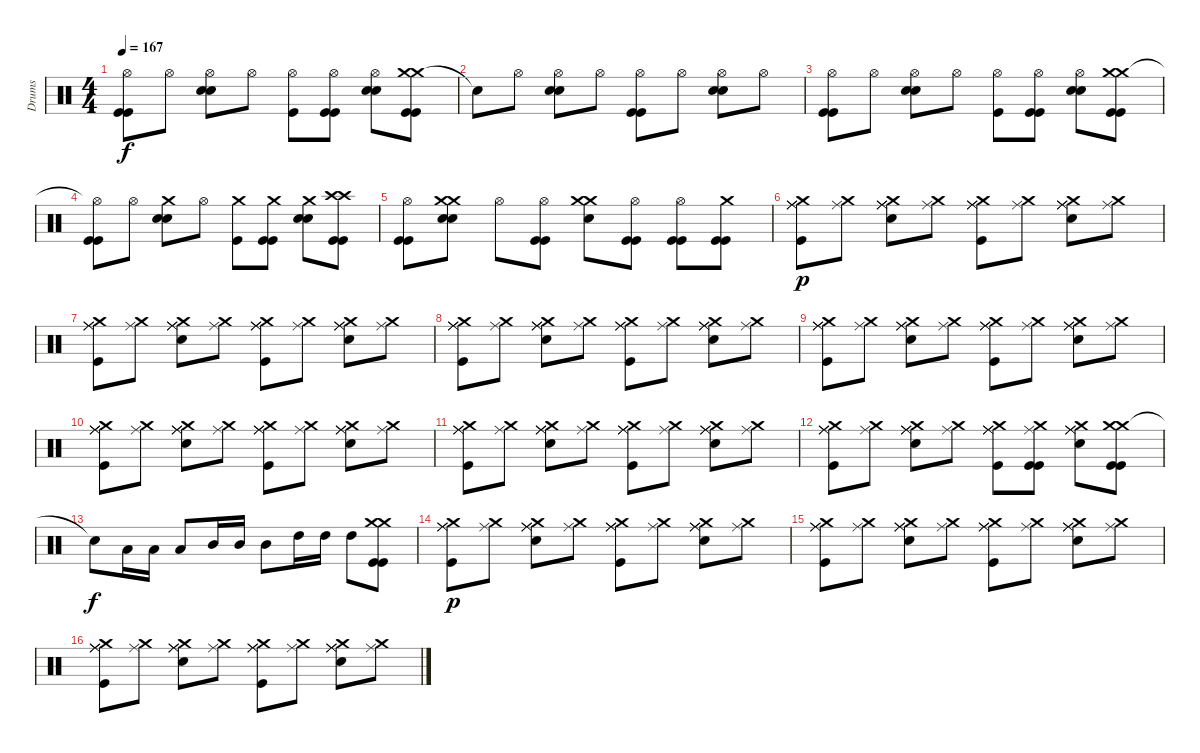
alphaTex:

\track ("Drums" "Drums") {instrument percussion}
\staff {score}
\articulation defaults
\ts (4 4)
\tempo 167
\clef neutral
\ks c
("Hi-Hat (open)" "Kick (hit)" "Kick (hit)").8{dy f} "Hi-Hat (open)".8 ("Hi-Hat (open)" "Snare (hit) 2" "Snare (hit) 2").8 "Hi-Hat (open)".8 ("Hi-Hat (open)" "Kick (hit)").8 ("Hi-Hat (open)" "Kick (hit)" "Kick (hit)").8 ("Hi-Hat (open)" "Snare (hit) 2" "Snare (hit) 2").8 ("Crash medium (hit)" "Crash medium (hit)" "Kick (hit)" "Kick (hit)").8 |
"Snare (hit)"{t}.8 "Hi-Hat (open)".8 ("Hi-Hat (open)" "Snare (hit) 2" "Snare (hit) 2").8 "Hi-Hat (open)".8 ("Hi-Hat (open)" "Kick (hit)" "Kick (hit)").8 "Hi-Hat (open)".8 ("Hi-Hat (open)" "Snare (hit) 2" "Snare (hit) 2").8 "Hi-Hat (open)".8 |
("Hi-Hat (open)" "Kick (hit)" "Kick (hit)").8 "Hi-Hat (open)".8 ("Hi-Hat (open)" "Snare (hit) 2" "Snare (hit) 2").8 "Hi-Hat (open)".8 ("Hi-Hat (open)" "Kick (hit)").8 ("Hi-Hat (open)" "Kick (hit)" "Kick (hit)").8 ("Hi-Hat (open)" "Snare (hit) 2" "Snare (hit) 2").8 ("Crash medium (hit)" "Crash medium (hit)" "Kick (hit)" "Kick (hit)").8 |
("Hi-Hat (open)"{t} "Kick (hit)" "Kick (hit)").8 "Hi-Hat (open)".8 ("Crash medium (hit)" "Snare (hit) 2" "Snare (hit) 2").8 "Hi-Hat (open)".8 ("Crash medium (hit)" "Kick (hit)").8 ("Crash medium (hit)" "Kick (hit)" "Kick (hit)").8 ("Crash medium (hit)" "Snare (hit) 2" "Snare (hit) 2").8 ("Crash high (hit)" "Crash high (hit)" "Kick (hit)" "Kick (hit)").8 |
("Hi-Hat (open)" "Kick (hit)" "Kick (hit)").8 ("Crash medium (hit)" "Snare (hit) 2" "Snare (hit) 2" "Crash medium (hit)").8 "Hi-Hat (open)".8 ("Hi-Hat (open)" "Kick (hit)" "Kick (hit)").8 ("Crash medium (hit)" "Crash medium (hit)" "Snare (hit) 2").8 ("Hi-Hat (open)" "Kick (hit)" "Kick (hit)").8 ("Hi-Hat (open)" "Kick (hit)" "Kick (hit)").8 ("Crash medium (hit)" "Kick (hit)" "Kick (hit)").8 |
("Ride (middle)" "Crash medium (hit)" "Ride (middle)" "Ride (middle)" "Kick (hit)").8{dy p} ("Ride (middle)" "Crash medium (hit)").8 ("Ride (middle)" "Crash medium (hit)" "Snare (hit) 2" "Ride (middle)" "Ride (middle)").8 ("Ride (middle)" "Crash medium (hit)").8 ("Ride (middle)" "Crash medium (hit)" "Ride (middle)" "Ride (middle)" "Kick (hit)").8 ("Ride (middle)" "Crash medium (hit)").8 ("Ride (middle)" "Crash medium (hit)" "Snare (hit) 2" "Ride (middle)" "Ride (middle)").8 ("Ride (middle)" "Crash medium (hit)").8 |
("Ride (middle)" "Crash medium (hit)" "Ride (middle)" "Ride (middle)" "Kick (hit)").8 ("Ride (middle)" "Crash medium (hit)").8 ("Ride (middle)" "Crash medium (hit)" "Snare (hit) 2" "Ride (middle)" "Ride (middle)").8 ("Ride (middle)" "Crash medium (hit)").8 ("Ride (middle)" "Crash medium (hit)" "Ride (middle)" "Ride (middle)" "Kick (hit)").8 ("Ride (middle)" "Crash medium (hit)").8 ("Ride (middle)" "Crash medium (hit)" "Snare (hit) 2" "Ride (middle)" "Ride (middle)").8 ("Ride (middle)" "Crash medium (hit)").8 |
("Ride (middle)" "Crash medium (hit)" "Ride (middle)" "Ride (middle)" "Kick (hit)").8 ("Ride (middle)" "Crash medium (hit)").8 ("Ride (middle)" "Crash medium (hit)" "Snare (hit) 2" "Ride (middle)" "Ride (middle)").8 ("Ride (middle)" "Crash medium (hit)").8 ("Ride (middle)" "Crash medium (hit)" "Ride (middle)" "Ride (middle)" "Kick (hit)").8 ("Ride (middle)" "Crash medium (hit)").8 ("Ride (middle)" "Crash medium (hit)" "Snare (hit) 2" "Ride (middle)" "Ride (middle)").8 ("Ride (middle)" "Crash medium (hit)").8 |
("Ride (middle)" "Crash medium (hit)" "Ride (middle)" "Ride (middle)" "Kick (hit)").8 ("Ride (middle)" "Crash medium (hit)").8 ("Ride (middle)" "Crash medium (hit)" "Snare (hit) 2" "Ride (middle)" "Ride (middle)").8 ("Ride (middle)" "Crash medium (hit)").8 ("Ride (middle)" "Crash medium (hit)" "Ride (middle)" "Ride (middle)" "Kick (hit)").8 ("Ride (middle)" "Crash medium (hit)").8 ("Ride (middle)" "Crash medium (hit)" "Snare (hit) 2" "Ride (middle)" "Ride (middle)").8 ("Ride (middle)" "Crash medium (hit)").8 |
("Ride (middle)" "Crash medium (hit)" "Ride (middle)" "Ride (middle)" "Kick (hit)").8 ("Ride (middle)" "Crash medium (hit)").8 ("Ride (middle)" "Crash medium (hit)" "Snare (hit) 2" "Ride (middle)" "Ride (middle)").8 ("Ride (middle)" "Crash medium (hit)").8 ("Ride (middle)" "Crash medium (hit)" "Ride (middle)" "Ride (middle)" "Kick (hit)").8 ("Ride (middle)" "Crash medium (hit)").8 ("Ride (middle)" "Crash medium (hit)" "Snare (hit) 2" "Ride (middle)" "Ride (middle)").8 ("Ride (middle)" "Crash medium (hit)").8 |
("Ride (middle)" "Crash medium (hit)" "Ride (middle)" "Ride (middle)" "Kick (hit)").8 ("Ride (middle)" "Crash medium (hit)").8 ("Ride (middle)" "Crash medium (hit)" "Snare (hit) 2" "Ride (middle)" "Ride (middle)").8 ("Ride (middle)" "Crash medium (hit)").8 ("Ride (middle)" "Crash medium (hit)" "Ride (middle)" "Ride (middle)" "Kick (hit)").8 ("Ride (middle)" "Crash medium (hit)").8 ("Ride (middle)" "Crash medium (hit)" "Snare (hit) 2" "Ride (middle)" "Ride (middle)").8 ("Ride (middle)" "Crash medium (hit)").8 |
("Ride (middle)" "Crash medium (hit)" "Ride (middle)" "Ride (middle)" "Kick (hit)").8 ("Ride (middle)" "Crash medium (hit)").8 ("Ride (middle)" "Crash medium (hit)" "Snare (hit) 2" "Ride (middle)" "Ride (middle)").8 ("Ride (middle)" "Crash medium (hit)").8 ("Ride (middle)" "Crash medium (hit)" "Ride (middle)" "Ride (middle)" "Kick (hit)").8 ("Ride (middle)" "Crash medium (hit)" "Kick (hit)" "Kick (hit)").8 ("Ride (middle)" "Crash medium (hit)" "Snare (hit) 2" "Ride (middle)" "Ride (middle)").8 ("Crash medium (hit)" "Crash medium (hit)" "Kick (hit)" "Kick (hit)").8 |
"Snare (hit)"{t}.8{dy f} "Low Tom (hit)".16 "Low Tom (hit)".16 "Low Tom (hit)".8 "Mid Tom (hit)".16 "Mid Tom (hit)".16 "Mid Tom (hit)".8 "High Tom (hit)".16 "High Tom (hit)".16 "High Tom (hit)".8 ("Crash medium (hit)" "Crash medium (hit)" "Kick (hit)" "Kick (hit)").8 |
("Ride (middle)" "Crash medium (hit)" "Ride (middle)" "Ride (middle)" "Kick (hit)").8{dy p} ("Ride (middle)" "Crash medium (hit)").8 ("Ride (middle)" "Crash medium (hit)" "Snare (hit) 2" "Ride (middle)" "Ride (middle)").8 ("Ride (middle)" "Crash medium (hit)").8 ("Ride (middle)" "Crash medium (hit)" "Ride (middle)" "Ride (middle)" "Kick (hit)").8 ("Ride (middle)" "Crash medium (hit)").8 ("Ride (middle)" "Crash medium (hit)" "Snare (hit) 2" "Ride (middle)" "Ride (middle)").8 ("Ride (middle)" "Crash medium (hit)").8 |
("Ride (middle)" "Crash medium (hit)" "Ride (middle)" "Ride (middle)" "Kick (hit)").8 ("Ride (middle)" "Crash medium (hit)").8 ("Ride (middle)" "Crash medium (hit)" "Snare (hit) 2" "Ride (middle)" "Ride (middle)").8 ("Ride (middle)" "Crash medium (hit)").8 ("Ride (middle)" "Crash medium (hit)" "Ride (middle)" "Ride (middle)" "Kick (hit)").8 ("Ride (middle)" "Crash medium (hit)").8 ("Ride (middle)" "Crash medium (hit)" "Snare (hit) 2" "Ride (middle)" "Ride (middle)").8 ("Ride (middle)" "Crash medium (hit)").8 |
("Ride (middle)" "Crash medium (hit)" "Ride (middle)" "Ride (middle)" "Kick (hit)").8 ("Ride (middle)" "Crash medium (hit)").8 ("Ride (middle)" "Crash medium (hit)" "Snare (hit) 2" "Ride (middle)" "Ride (middle)").8 ("Ride (middle)" "Crash medium (hit)").8 ("Ride (middle)" "Crash medium (hit)" "Ride (middle)" "Ride (middle)" "Kick (hit)").8 ("Ride (middle)" "Crash medium (hit)").8 ("Ride (middle)" "Crash medium (hit)" "Snare (hit) 2" "Ride (middle)" "Ride (middle)").8 ("Ride (middle)" "Crash medium (hit)").8
